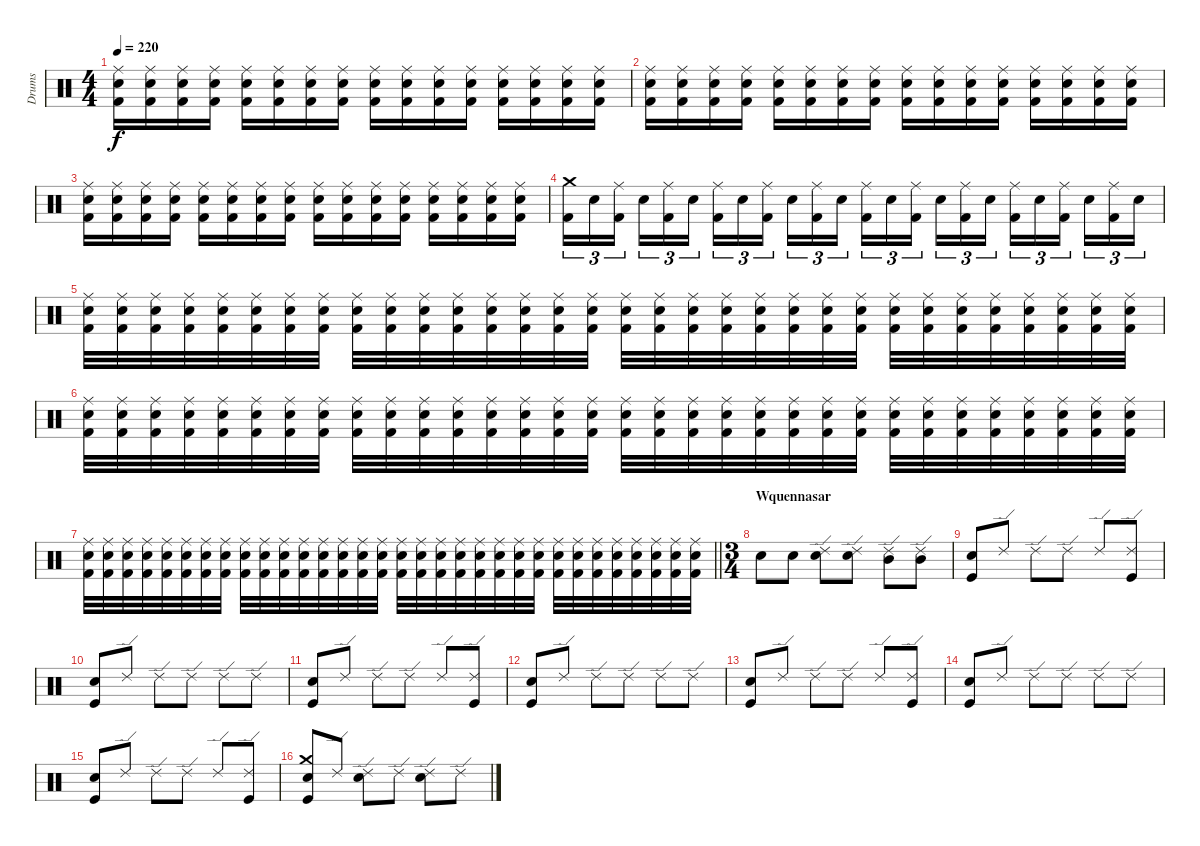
\track ("Drums" "Drums") {instrument percussion}
\staff {score}
\articulation defaults
\ts (4 4)
\tempo 220
\clef neutral
\ks c
("Ride (middle)" "Electric Snare (hit)" "Kick (hit) 2").16{dy f} ("Ride (middle)" "Electric Snare (hit)" "Kick (hit) 2").16 ("Ride (middle)" "Electric Snare (hit)" "Kick (hit) 2").16 ("Ride (middle)" "Electric Snare (hit)" "Kick (hit) 2").16 ("Ride (middle)" "Electric Snare (hit)" "Kick (hit) 2").16 ("Ride (middle)" "Electric Snare (hit)" "Kick (hit) 2").16 ("Ride (middle)" "Electric Snare (hit)" "Kick (hit) 2").16 ("Ride (middle)" "Electric Snare (hit)" "Kick (hit) 2").16 ("Ride (middle)" "Electric Snare (hit)" "Kick (hit) 2").16 ("Ride (middle)" "Electric Snare (hit)" "Kick (hit) 2").16 ("Ride (middle)" "Electric Snare (hit)" "Kick (hit) 2").16 ("Ride (middle)" "Electric Snare (hit)" "Kick (hit) 2").16 ("Ride (middle)" "Electric Snare (hit)" "Kick (hit) 2").16 ("Ride (middle)" "Electric Snare (hit)" "Kick (hit) 2").16 ("Ride (middle)" "Electric Snare (hit)" "Kick (hit) 2").16 ("Ride (middle)" "Electric Snare (hit)" "Kick (hit) 2").16 |
("Ride (middle)" "Electric Snare (hit)" "Kick (hit) 2").16 ("Ride (middle)" "Electric Snare (hit)" "Kick (hit) 2").16 ("Ride (middle)" "Electric Snare (hit)" "Kick (hit) 2").16 ("Ride (middle)" "Electric Snare (hit)" "Kick (hit) 2").16 ("Ride (middle)" "Electric Snare (hit)" "Kick (hit) 2").16 ("Ride (middle)" "Electric Snare (hit)" "Kick (hit) 2").16 ("Ride (middle)" "Electric Snare (hit)" "Kick (hit) 2").16 ("Ride (middle)" "Electric Snare (hit)" "Kick (hit) 2").16 ("Ride (middle)" "Electric Snare (hit)" "Kick (hit) 2").16 ("Ride (middle)" "Electric Snare (hit)" "Kick (hit) 2").16 ("Ride (middle)" "Electric Snare (hit)" "Kick (hit) 2").16 ("Ride (middle)" "Electric Snare (hit)" "Kick (hit) 2").16 ("Ride (middle)" "Electric Snare (hit)" "Kick (hit) 2").16 ("Ride (middle)" "Electric Snare (hit)" "Kick (hit) 2").16 ("Ride (middle)" "Electric Snare (hit)" "Kick (hit) 2").16 ("Ride (middle)" "Electric Snare (hit)" "Kick (hit) 2").16 |
("Ride (middle)" "Electric Snare (hit)" "Kick (hit) 2").16 ("Ride (middle)" "Electric Snare (hit)" "Kick (hit) 2").16 ("Ride (middle)" "Electric Snare (hit)" "Kick (hit) 2").16 ("Ride (middle)" "Electric Snare (hit)" "Kick (hit) 2").16 ("Ride (middle)" "Electric Snare (hit)" "Kick (hit) 2").16 ("Ride (middle)" "Electric Snare (hit)" "Kick (hit) 2").16 ("Ride (middle)" "Electric Snare (hit)" "Kick (hit) 2").16 ("Ride (middle)" "Electric Snare (hit)" "Kick (hit) 2").16 ("Ride (middle)" "Electric Snare (hit)" "Kick (hit) 2").16 ("Ride (middle)" "Electric Snare (hit)" "Kick (hit) 2").16 ("Ride (middle)" "Electric Snare (hit)" "Kick (hit) 2").16 ("Ride (middle)" "Electric Snare (hit)" "Kick (hit) 2").16 ("Ride (middle)" "Electric Snare (hit)" "Kick (hit) 2").16 ("Ride (middle)" "Electric Snare (hit)" "Kick (hit) 2").16 ("Ride (middle)" "Electric Snare (hit)" "Kick (hit) 2").16 ("Ride (middle)" "Electric Snare (hit)" "Kick (hit) 2").16 |
("Crash medium (hit)" "Kick (hit) 2").16{tu (3 2)} "Electric Snare (hit)".16{tu (3 2)} ("Ride (middle)" "Kick (hit) 2").16{tu (3 2) beam splitsecondary} "Electric Snare (hit)".16{tu (3 2)} ("Ride (middle)" "Kick (hit) 2").16{tu (3 2)} "Electric Snare (hit)".16{tu (3 2)} ("Ride (middle)" "Kick (hit) 2").16{tu (3 2)} "Electric Snare (hit)".16{tu (3 2)} ("Ride (middle)" "Kick (hit) 2").16{tu (3 2) beam splitsecondary} "Electric Snare (hit)".16{tu (3 2)} ("Ride (middle)" "Kick (hit) 2").16{tu (3 2)} "Electric Snare (hit)".16{tu (3 2)} ("Ride (middle)" "Kick (hit) 2").16{tu (3 2)} "Electric Snare (hit)".16{tu (3 2)} ("Ride (middle)" "Kick (hit) 2").16{tu (3 2) beam splitsecondary} "Electric Snare (hit)".16{tu (3 2)} ("Ride (middle)" "Kick (hit) 2").16{tu (3 2)} "Electric Snare (hit)".16{tu (3 2)} ("Ride (middle)" "Kick (hit) 2").16{tu (3 2)} "Electric Snare (hit)".16{tu (3 2)} ("Ride (middle)" "Kick (hit) 2").16{tu (3 2) beam splitsecondary} "Electric Snare (hit)".16{tu (3 2)} ("Ride (middle)" "Kick (hit) 2").16{tu (3 2)} "Electric Snare (hit)".16{tu (3 2)} |
("Ride (middle)" "Electric Snare (hit)" "Kick (hit) 2").32 ("Ride (middle)" "Electric Snare (hit)" "Kick (hit) 2").32 ("Ride (middle)" "Electric Snare (hit)" "Kick (hit) 2").32 ("Ride (middle)" "Electric Snare (hit)" "Kick (hit) 2").32 ("Ride (middle)" "Electric Snare (hit)" "Kick (hit) 2").32 ("Ride (middle)" "Electric Snare (hit)" "Kick (hit) 2").32 ("Ride (middle)" "Electric Snare (hit)" "Kick (hit) 2").32 ("Ride (middle)" "Electric Snare (hit)" "Kick (hit) 2").32 ("Ride (middle)" "Electric Snare (hit)" "Kick (hit) 2").32 ("Ride (middle)" "Electric Snare (hit)" "Kick (hit) 2").32 ("Ride (middle)" "Electric Snare (hit)" "Kick (hit) 2").32 ("Ride (middle)" "Electric Snare (hit)" "Kick (hit) 2").32 ("Ride (middle)" "Electric Snare (hit)" "Kick (hit) 2").32 ("Ride (middle)" "Electric Snare (hit)" "Kick (hit) 2").32 ("Ride (middle)" "Electric Snare (hit)" "Kick (hit) 2").32 ("Ride (middle)" "Electric Snare (hit)" "Kick (hit) 2").32 ("Ride (middle)" "Electric Snare (hit)" "Kick (hit) 2").32 ("Ride (middle)" "Electric Snare (hit)" "Kick (hit) 2").32 ("Ride (middle)" "Electric Snare (hit)" "Kick (hit) 2").32 ("Ride (middle)" "Electric Snare (hit)" "Kick (hit) 2").32 ("Ride (middle)" "Electric Snare (hit)" "Kick (hit) 2").32 ("Ride (middle)" "Electric Snare (hit)" "Kick (hit) 2").32 ("Ride (middle)" "Electric Snare (hit)" "Kick (hit) 2").32 ("Ride (middle)" "Electric Snare (hit)" "Kick (hit) 2").32 ("Ride (middle)" "Electric Snare (hit)" "Kick (hit) 2").32 ("Ride (middle)" "Electric Snare (hit)" "Kick (hit) 2").32 ("Ride (middle)" "Electric Snare (hit)" "Kick (hit) 2").32 ("Ride (middle)" "Electric Snare (hit)" "Kick (hit) 2").32 ("Ride (middle)" "Electric Snare (hit)" "Kick (hit) 2").32 ("Ride (middle)" "Electric Snare (hit)" "Kick (hit) 2").32 ("Ride (middle)" "Electric Snare (hit)" "Kick (hit) 2").32 ("Ride (middle)" "Electric Snare (hit)" "Kick (hit) 2").32 |
("Ride (middle)" "Electric Snare (hit)" "Kick (hit) 2").32 ("Ride (middle)" "Electric Snare (hit)" "Kick (hit) 2").32 ("Ride (middle)" "Electric Snare (hit)" "Kick (hit) 2").32 ("Ride (middle)" "Electric Snare (hit)" "Kick (hit) 2").32 ("Ride (middle)" "Electric Snare (hit)" "Kick (hit) 2").32 ("Ride (middle)" "Electric Snare (hit)" "Kick (hit) 2").32 ("Ride (middle)" "Electric Snare (hit)" "Kick (hit) 2").32 ("Ride (middle)" "Electric Snare (hit)" "Kick (hit) 2").32 ("Ride (middle)" "Electric Snare (hit)" "Kick (hit) 2").32 ("Ride (middle)" "Electric Snare (hit)" "Kick (hit) 2").32 ("Ride (middle)" "Electric Snare (hit)" "Kick (hit) 2").32 ("Ride (middle)" "Electric Snare (hit)" "Kick (hit) 2").32 ("Ride (middle)" "Electric Snare (hit)" "Kick (hit) 2").32 ("Ride (middle)" "Electric Snare (hit)" "Kick (hit) 2").32 ("Ride (middle)" "Electric Snare (hit)" "Kick (hit) 2").32 ("Ride (middle)" "Electric Snare (hit)" "Kick (hit) 2").32 ("Ride (middle)" "Electric Snare (hit)" "Kick (hit) 2").32 ("Ride (middle)" "Electric Snare (hit)" "Kick (hit) 2").32 ("Ride (middle)" "Electric Snare (hit)" "Kick (hit) 2").32 ("Ride (middle)" "Electric Snare (hit)" "Kick (hit) 2").32 ("Ride (middle)" "Electric Snare (hit)" "Kick (hit) 2").32 ("Ride (middle)" "Electric Snare (hit)" "Kick (hit) 2").32 ("Ride (middle)" "Electric Snare (hit)" "Kick (hit) 2").32 ("Ride (middle)" "Electric Snare (hit)" "Kick (hit) 2").32 ("Ride (middle)" "Electric Snare (hit)" "Kick (hit) 2").32 ("Ride (middle)" "Electric Snare (hit)" "Kick (hit) 2").32 ("Ride (middle)" "Electric Snare (hit)" "Kick (hit) 2").32 ("Ride (middle)" "Electric Snare (hit)" "Kick (hit) 2").32 ("Ride (middle)" "Electric Snare (hit)" "Kick (hit) 2").32 ("Ride (middle)" "Electric Snare (hit)" "Kick (hit) 2").32 ("Ride (middle)" "Electric Snare (hit)" "Kick (hit) 2").32 ("Ride (middle)" "Electric Snare (hit)" "Kick (hit) 2").32 |
\barLineRight lightlight
("Ride (middle)" "Electric Snare (hit)" "Kick (hit) 2").32 ("Ride (middle)" "Electric Snare (hit)" "Kick (hit) 2").32 ("Ride (middle)" "Electric Snare (hit)" "Kick (hit) 2").32 ("Ride (middle)" "Electric Snare (hit)" "Kick (hit) 2").32 ("Ride (middle)" "Electric Snare (hit)" "Kick (hit) 2").32 ("Ride (middle)" "Electric Snare (hit)" "Kick (hit) 2").32 ("Ride (middle)" "Electric Snare (hit)" "Kick (hit) 2").32 ("Ride (middle)" "Electric Snare (hit)" "Kick (hit) 2").32 ("Ride (middle)" "Electric Snare (hit)" "Kick (hit) 2").32 ("Ride (middle)" "Electric Snare (hit)" "Kick (hit) 2").32 ("Ride (middle)" "Electric Snare (hit)" "Kick (hit) 2").32 ("Ride (middle)" "Electric Snare (hit)" "Kick (hit) 2").32 ("Ride (middle)" "Electric Snare (hit)" "Kick (hit) 2").32 ("Ride (middle)" "Electric Snare (hit)" "Kick (hit) 2").32 ("Ride (middle)" "Electric Snare (hit)" "Kick (hit) 2").32 ("Ride (middle)" "Electric Snare (hit)" "Kick (hit) 2").32 ("Ride (middle)" "Electric Snare (hit)" "Kick (hit) 2").32 ("Ride (middle)" "Electric Snare (hit)" "Kick (hit) 2").32 ("Ride (middle)" "Electric Snare (hit)" "Kick (hit) 2").32 ("Ride (middle)" "Electric Snare (hit)" "Kick (hit) 2").32 ("Ride (middle)" "Electric Snare (hit)" "Kick (hit) 2").32 ("Ride (middle)" "Electric Snare (hit)" "Kick (hit) 2").32 ("Ride (middle)" "Electric Snare (hit)" "Kick (hit) 2").32 ("Ride (middle)" "Electric Snare (hit)" "Kick (hit) 2").32 ("Ride (middle)" "Electric Snare (hit)" "Kick (hit) 2").32 ("Ride (middle)" "Electric Snare (hit)" "Kick (hit) 2").32 ("Ride (middle)" "Electric Snare (hit)" "Kick (hit) 2").32 ("Ride (middle)" "Electric Snare (hit)" "Kick (hit) 2").32 ("Ride (middle)" "Electric Snare (hit)" "Kick (hit) 2").32 ("Ride (middle)" "Electric Snare (hit)" "Kick (hit) 2").32 ("Ride (middle)" "Electric Snare (hit)" "Kick (hit) 2").32 ("Ride (middle)" "Electric Snare (hit)" "Kick (hit) 2").32 |
\ts (3 4)
\section ("" "Wquennasar")
"Electric Snare (hit)".8 "Electric Snare (hit)".8 ("Ride (edge) 2" "Electric Snare (hit)").8 ("Ride (edge) 2" "Electric Snare (hit)").8 ("Ride (edge) 2" "Mid Tom (hit)").8 ("Ride (edge) 2" "Mid Tom (hit)").8 |
("Electric Snare (hit)" "Kick (hit)").8 "Ride (edge) 2".8 "Ride (edge) 2".8 "Ride (edge) 2".8 "Ride (edge) 2".8 ("Ride (edge) 2" "Kick (hit)").8 |
("Electric Snare (hit)" "Kick (hit)").8 "Ride (edge) 2".8 "Ride (edge) 2".8 "Ride (edge) 2".8 "Ride (edge) 2".8 "Ride (edge) 2".8 |
("Electric Snare (hit)" "Kick (hit)").8 "Ride (edge) 2".8 "Ride (edge) 2".8 "Ride (edge) 2".8 "Ride (edge) 2".8 ("Ride (edge) 2" "Kick (hit)").8 |
("Electric Snare (hit)" "Kick (hit)").8 "Ride (edge) 2".8 "Ride (edge) 2".8 "Ride (edge) 2".8 "Ride (edge) 2".8 "Ride (edge) 2".8 |
("Electric Snare (hit)" "Kick (hit)").8 "Ride (edge) 2".8 "Ride (edge) 2".8 "Ride (edge) 2".8 "Ride (edge) 2".8 ("Ride (edge) 2" "Kick (hit)").8 |
("Electric Snare (hit)" "Kick (hit)").8 "Ride (edge) 2".8 "Ride (edge) 2".8 "Ride (edge) 2".8 "Ride (edge) 2".8 "Ride (edge) 2".8 |
("Electric Snare (hit)" "Kick (hit)").8 "Ride (edge) 2".8 "Ride (edge) 2".8 "Ride (edge) 2".8 "Ride (edge) 2".8 ("Ride (edge) 2" "Kick (hit)").8 |
("Crash medium (hit)" "Electric Snare (hit)" "Kick (hit)").8 "Ride (edge) 2".8 ("Ride (edge) 2" "Electric Snare (hit)").8 "Ride (edge) 2".8 ("Ride (edge) 2" "Electric Snare (hit)").8 "Ride (edge) 2".8
